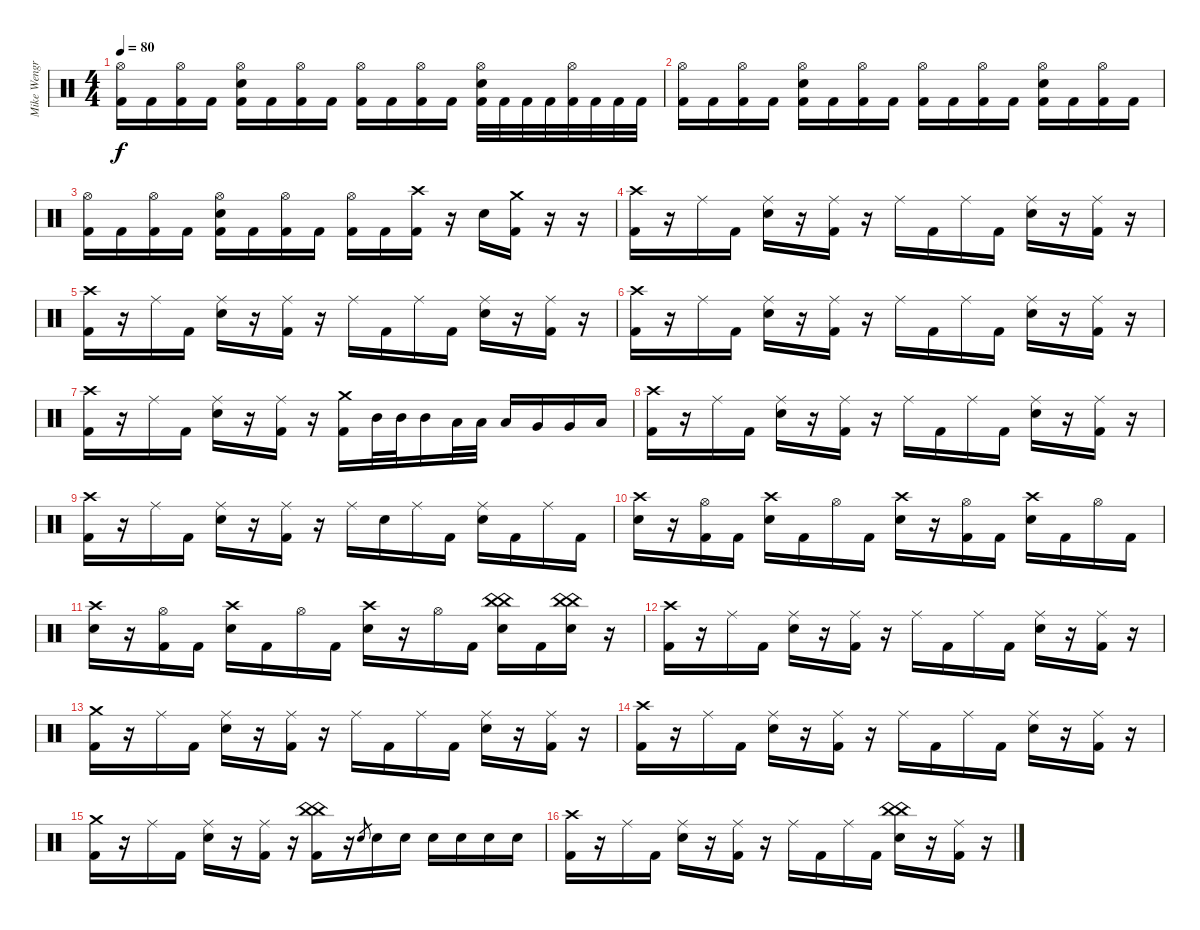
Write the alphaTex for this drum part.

\track ("Mike Wengren (Drums)" "Mike Wengr") {instrument percussion}
\staff {score}
\articulation defaults
\ts (4 4)
\tempo 80
\clef neutral
\ks c
("Hi-Hat (open)" "Kick (hit) 2").16{dy f} "Kick (hit) 2".16 ("Hi-Hat (open)" "Kick (hit) 2").16 "Kick (hit) 2".16 ("Hi-Hat (open)" "Electric Snare (hit)" "Kick (hit) 2").16 "Kick (hit) 2".16 ("Hi-Hat (open)" "Kick (hit) 2").16 "Kick (hit) 2".16 ("Hi-Hat (open)" "Kick (hit) 2").16 "Kick (hit) 2".16 ("Hi-Hat (open)" "Kick (hit) 2").16 "Kick (hit) 2".16 ("Hi-Hat (open)" "Electric Snare (hit)" "Kick (hit) 2").32 "Kick (hit) 2".32 "Kick (hit) 2".32 "Kick (hit) 2".32 ("Hi-Hat (open)" "Kick (hit) 2").32 "Kick (hit) 2".32 "Kick (hit) 2".32 "Kick (hit) 2".32 |
("Hi-Hat (open)" "Kick (hit) 2").16 "Kick (hit) 2".16 ("Hi-Hat (open)" "Kick (hit) 2").16 "Kick (hit) 2".16 ("Hi-Hat (open)" "Electric Snare (hit)" "Kick (hit) 2").16 "Kick (hit) 2".16 ("Hi-Hat (open)" "Kick (hit) 2").16 "Kick (hit) 2".16 ("Hi-Hat (open)" "Kick (hit) 2").16 "Kick (hit) 2".16 ("Hi-Hat (open)" "Kick (hit) 2").16 "Kick (hit) 2".16 ("Hi-Hat (open)" "Electric Snare (hit)" "Kick (hit) 2").16 "Kick (hit) 2".16 ("Hi-Hat (open)" "Kick (hit) 2").16 "Kick (hit) 2".16 |
("Hi-Hat (open)" "Kick (hit) 2").16 "Kick (hit) 2".16 ("Hi-Hat (open)" "Kick (hit) 2").16 "Kick (hit) 2".16 ("Hi-Hat (open)" "Electric Snare (hit)" "Kick (hit) 2").16 "Kick (hit) 2".16 ("Hi-Hat (open)" "Kick (hit) 2").16 "Kick (hit) 2".16 ("Hi-Hat (open)" "Kick (hit) 2").16 "Kick (hit) 2".16 ("Crash high (hit)" "Kick (hit) 2").16 r.16 "Electric Snare (hit)".16 ("Crash medium (hit)" "Kick (hit) 2").16 r.16 r.16 |
("Crash high (hit)" "Kick (hit) 2").16 r.16 "Ride (middle)".16 "Kick (hit) 2".16 ("Ride (middle)" "Electric Snare (hit)").16 r.16 ("Ride (middle)" "Kick (hit) 2").16 r.16 "Ride (middle)".16 "Kick (hit) 2".16 "Ride (middle)".16 "Kick (hit) 2".16 ("Ride (middle)" "Electric Snare (hit)").16 r.16 ("Ride (middle)" "Kick (hit) 2").16 r.16 |
("Crash high (hit)" "Kick (hit) 2").16 r.16 "Ride (middle)".16 "Kick (hit) 2".16 ("Ride (middle)" "Electric Snare (hit)").16 r.16 ("Ride (middle)" "Kick (hit) 2").16 r.16 "Ride (middle)".16 "Kick (hit) 2".16 "Ride (middle)".16 "Kick (hit) 2".16 ("Ride (middle)" "Electric Snare (hit)").16 r.16 ("Ride (middle)" "Kick (hit) 2").16 r.16 |
("Crash high (hit)" "Kick (hit) 2").16 r.16 "Ride (middle)".16 "Kick (hit) 2".16 ("Ride (middle)" "Electric Snare (hit)").16 r.16 ("Ride (middle)" "Kick (hit) 2").16 r.16 "Ride (middle)".16 "Kick (hit) 2".16 "Ride (middle)".16 "Kick (hit) 2".16 ("Ride (middle)" "Electric Snare (hit)").16 r.16 ("Ride (middle)" "Kick (hit) 2").16 r.16 |
("Crash high (hit)" "Kick (hit) 2").16 r.16 "Ride (middle)".16 "Kick (hit) 2".16 ("Ride (middle)" "Electric Snare (hit)").16 r.16 ("Ride (middle)" "Kick (hit) 2").16 r.16 ("Crash medium (hit)" "Kick (hit) 2").16 "Mid Tom (hit)".32 "Mid Tom (hit)".32 "Mid Tom (hit)".16 "Low Tom (hit)".32 "Low Tom (hit)".32 "Low Tom (hit)".16 "Very Low Tom (hit)".16 "Very Low Tom (hit)".16 "Low Floor Tom (hit)".16 |
("Crash high (hit)" "Kick (hit) 2").16 r.16 "Ride (middle)".16 "Kick (hit) 2".16 ("Ride (middle)" "Electric Snare (hit)").16 r.16 ("Ride (middle)" "Kick (hit) 2").16 r.16 "Ride (middle)".16 "Kick (hit) 2".16 "Ride (middle)".16 "Kick (hit) 2".16 ("Ride (middle)" "Electric Snare (hit)").16 r.16 ("Ride (middle)" "Kick (hit) 2").16 r.16 |
("Crash high (hit)" "Kick (hit) 2").16 r.16 "Ride (middle)".16 "Kick (hit) 2".16 ("Ride (middle)" "Electric Snare (hit)").16 r.16 ("Ride (middle)" "Kick (hit) 2").16 r.16 "Ride (middle)".16 "Electric Snare (hit)".16 "Ride (middle)".16 "Kick (hit) 2".16 ("Ride (middle)" "Electric Snare (hit)").16 "Kick (hit) 2".16 "Ride (middle)".16 "Kick (hit) 2".16 |
("Crash high (hit)" "Electric Snare (hit)").16 r.16 ("Hi-Hat (open)" "Kick (hit) 2").16 "Kick (hit) 2".16 ("Crash high (hit)" "Electric Snare (hit)").16 "Kick (hit) 2".16 "Hi-Hat (open)".16 "Kick (hit) 2".16 ("Crash high (hit)" "Electric Snare (hit)").16 r.16 ("Hi-Hat (open)" "Kick (hit) 2").16 "Kick (hit) 2".16 ("Crash high (hit)" "Electric Snare (hit)").16 "Kick (hit) 2".16 "Hi-Hat (open)".16 "Kick (hit) 2".16 |
("Crash high (hit)" "Electric Snare (hit)").16 r.16 ("Hi-Hat (open)" "Kick (hit) 2").16 "Kick (hit) 2".16 ("Crash high (hit)" "Electric Snare (hit)").16 "Kick (hit) 2".16 "Hi-Hat (open)".16 "Kick (hit) 2".16 ("Crash high (hit)" "Electric Snare (hit)").16 r.16 "Hi-Hat (open)".16 "Kick (hit) 2".16 ("China (hit)" "China (hit)" "Electric Snare (hit)").16 "Kick (hit) 2".16 ("China (hit)" "China (hit)" "Electric Snare (hit)").16 r.16 |
("Crash high (hit)" "Kick (hit) 2").16 r.16 "Ride (middle)".16 "Kick (hit) 2".16 ("Ride (middle)" "Electric Snare (hit)").16 r.16 ("Ride (middle)" "Kick (hit) 2").16 r.16 "Ride (middle)".16 "Kick (hit) 2".16 "Ride (middle)".16 "Kick (hit) 2".16 ("Ride (middle)" "Electric Snare (hit)").16 r.16 ("Ride (middle)" "Kick (hit) 2").16 r.16 |
("Crash medium (hit)" "Kick (hit) 2").16 r.16 "Ride (middle)".16 "Kick (hit) 2".16 ("Ride (middle)" "Electric Snare (hit)").16 r.16 ("Ride (middle)" "Kick (hit) 2").16 r.16 "Ride (middle)".16 "Kick (hit) 2".16 "Ride (middle)".16 "Kick (hit) 2".16 ("Ride (middle)" "Electric Snare (hit)").16 r.16 ("Ride (middle)" "Kick (hit) 2").16 r.16 |
("Crash high (hit)" "Kick (hit) 2").16 r.16 "Ride (middle)".16 "Kick (hit) 2".16 ("Ride (middle)" "Electric Snare (hit)").16 r.16 ("Ride (middle)" "Kick (hit) 2").16 r.16 "Ride (middle)".16 "Kick (hit) 2".16 "Ride (middle)".16 "Kick (hit) 2".16 ("Ride (middle)" "Electric Snare (hit)").16 r.16 ("Ride (middle)" "Kick (hit) 2").16 r.16 |
("Crash medium (hit)" "Kick (hit) 2").16 r.16 "Ride (middle)".16 "Kick (hit) 2".16 ("Ride (middle)" "Electric Snare (hit)").16 r.16 ("Ride (middle)" "Kick (hit) 2").16 r.16 ("China (hit)" "China (hit)" "Kick (hit) 2").16 r.16 "Electric Snare (hit)".8{gr} "Electric Snare (hit)".16 "Electric Snare (hit)".16 "Electric Snare (hit)".16 "Electric Snare (hit)".16 "Electric Snare (hit)".16 "Electric Snare (hit)".16 |
("Crash high (hit)" "Kick (hit) 2").16 r.16 "Ride (middle)".16 "Kick (hit) 2".16 ("Ride (middle)" "Electric Snare (hit)").16 r.16 ("Ride (middle)" "Kick (hit) 2").16 r.16 "Ride (middle)".16 "Kick (hit) 2".16 "Ride (middle)".16 "Kick (hit) 2".16 ("China (hit)" "China (hit)" "Electric Snare (hit)").16 r.16 ("Ride (middle)" "Kick (hit) 2").16 r.16
